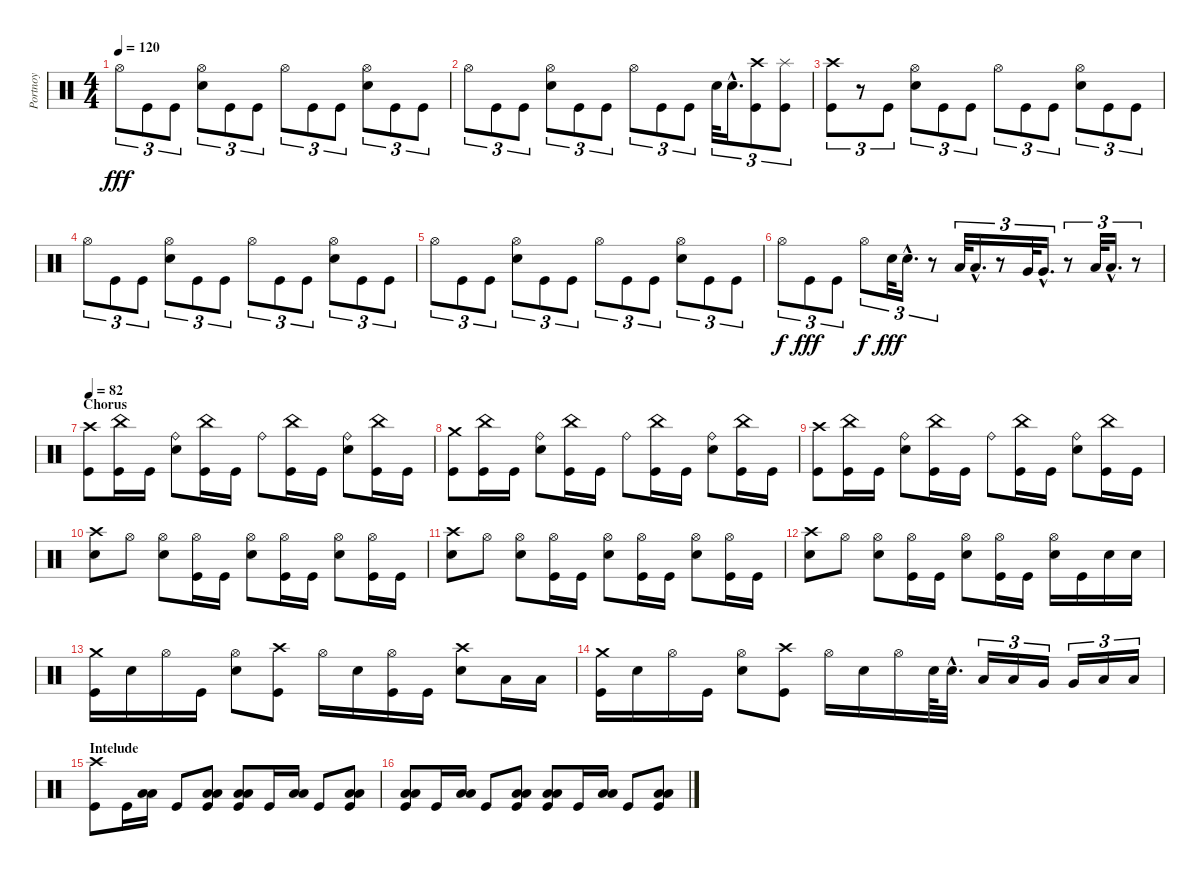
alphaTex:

\track ("Portnoy" "Portnoy") {instrument percussion}
\staff {score}
\articulation defaults
\ts (4 4)
\tempo 120
\clef neutral
\ks c "Hi-Hat (open)".8{tu (3 2) dy fff} "Kick (hit)".8{tu (3 2)} "Kick (hit)".8{tu (3 2)}
("Hi-Hat (open)" "Snare (hit) 2").8{tu (3 2)} "Kick (hit)".8{tu (3 2)} "Kick (hit)".8{tu (3 2)} "Hi-Hat (open)".8{tu (3 2)} "Kick (hit)".8{tu (3 2)} "Kick (hit)".8{tu (3 2)} ("Hi-Hat (open)" "Snare (hit) 2").8{tu (3 2)} "Kick (hit)".8{tu (3 2)} "Kick (hit)".8{tu (3 2)} |
"Hi-Hat (open)".8{tu (3 2)} "Kick (hit)".8{tu (3 2)} "Kick (hit)".8{tu (3 2)} ("Hi-Hat (open)" "Snare (hit) 2").8{tu (3 2)} "Kick (hit)".8{tu (3 2)} "Kick (hit)".8{tu (3 2)} "Hi-Hat (open)".8{tu (3 2)} "Kick (hit)".8{tu (3 2)} "Kick (hit)".8{tu (3 2)} "Snare (hit) 2".32{tu (3 2)} "Snare (hit) 2"{hac}.16{d tu (3 2)} ("Crash high (hit)" "Kick (hit)").8{tu (3 2)} ("Splash (hit)" "Kick (hit)").8{tu (3 2)} |
("Crash high (hit)" "Kick (hit)").8{tu (3 2)} r.8{tu (3 2)} "Kick (hit)".8{tu (3 2)} ("Hi-Hat (open)" "Snare (hit) 2").8{tu (3 2)} "Kick (hit)".8{tu (3 2)} "Kick (hit)".8{tu (3 2)} "Hi-Hat (open)".8{tu (3 2)} "Kick (hit)".8{tu (3 2)} "Kick (hit)".8{tu (3 2)} ("Hi-Hat (open)" "Snare (hit) 2").8{tu (3 2)} "Kick (hit)".8{tu (3 2)} "Kick (hit)".8{tu (3 2)} |
"Hi-Hat (open)".8{tu (3 2)} "Kick (hit)".8{tu (3 2)} "Kick (hit)".8{tu (3 2)} ("Hi-Hat (open)" "Snare (hit) 2").8{tu (3 2)} "Kick (hit)".8{tu (3 2)} "Kick (hit)".8{tu (3 2)} "Hi-Hat (open)".8{tu (3 2)} "Kick (hit)".8{tu (3 2)} "Kick (hit)".8{tu (3 2)} ("Hi-Hat (open)" "Snare (hit) 2").8{tu (3 2)} "Kick (hit)".8{tu (3 2)} "Kick (hit)".8{tu (3 2)} |
"Hi-Hat (open)".8{tu (3 2)} "Kick (hit)".8{tu (3 2)} "Kick (hit)".8{tu (3 2)} ("Hi-Hat (open)" "Snare (hit) 2").8{tu (3 2)} "Kick (hit)".8{tu (3 2)} "Kick (hit)".8{tu (3 2)} "Hi-Hat (open)".8{tu (3 2)} "Kick (hit)".8{tu (3 2)} "Kick (hit)".8{tu (3 2)} ("Hi-Hat (open)" "Snare (hit) 2").8{tu (3 2)} "Kick (hit)".8{tu (3 2)} "Kick (hit)".8{tu (3 2)} |
"Hi-Hat (open)".8{tu (3 2) dy f} "Kick (hit)".8{tu (3 2) dy fff} "Kick (hit)".8{tu (3 2)} "Hi-Hat (open)".8{tu (3 2) dy f} "Snare (hit) 2".32{tu (3 2) dy fff} "Snare (hit) 2"{hac}.16{d tu (3 2)} r.8{tu (3 2)} "Low Tom (hit)".32{tu (3 2)} "Low Tom (hit)"{hac}.16{d tu (3 2)} r.8{tu (3 2)} "Very Low Tom (hit)".32{tu (3 2)} "Very Low Tom (hit)"{hac}.16{d tu (3 2)} r.8{tu (3 2)} "Low Floor Tom (hit)".32{tu (3 2)} "Low Floor Tom (hit)"{hac}.16{d tu (3 2)} r.8{tu (3 2)} |
\section ("" "Chorus")
\tempo 82
("Crash high (hit)" "Kick (hit)").8 ("China (hit)" "Kick (hit)").16 "Kick (hit)".16 ("Ride (bell)" "Snare (hit) 2").8 ("China (hit)" "Kick (hit)").16 "Kick (hit)".16 "Ride (bell)".8 ("China (hit)" "Kick (hit)").16 "Kick (hit)".16 ("Ride (bell)" "Snare (hit) 2").8 ("China (hit)" "Kick (hit)").16 "Kick (hit)".16 |
("Crash medium (hit)" "Kick (hit)").8 ("China (hit)" "Kick (hit)").16 "Kick (hit)".16 ("Ride (bell)" "Snare (hit) 2").8 ("China (hit)" "Kick (hit)").16 "Kick (hit)".16 "Ride (bell)".8 ("China (hit)" "Kick (hit)").16 "Kick (hit)".16 ("Ride (bell)" "Snare (hit) 2").8 ("China (hit)" "Kick (hit)").16 "Kick (hit)".16 |
("Crash high (hit)" "Kick (hit)").8 ("China (hit)" "Kick (hit)").16 "Kick (hit)".16 ("Ride (bell)" "Snare (hit) 2").8 ("China (hit)" "Kick (hit)").16 "Kick (hit)".16 "Ride (bell)".8 ("China (hit)" "Kick (hit)").16 "Kick (hit)".16 ("Ride (bell)" "Snare (hit) 2").8 ("China (hit)" "Kick (hit)").16 "Kick (hit)".16 |
("Crash high (hit)" "Snare (hit) 2").8 "Hi-Hat (open)".8 ("Hi-Hat (open)" "Snare (hit) 2").8 ("Hi-Hat (open)" "Kick (hit)").16 "Kick (hit)".16 ("Hi-Hat (open)" "Snare (hit) 2").8 ("Hi-Hat (open)" "Kick (hit)").16 "Kick (hit)".16 ("Hi-Hat (open)" "Snare (hit) 2").8 ("Hi-Hat (open)" "Kick (hit)").16 "Kick (hit)".16 |
("Crash high (hit)" "Snare (hit) 2").8 "Hi-Hat (open)".8 ("Hi-Hat (open)" "Snare (hit) 2").8 ("Hi-Hat (open)" "Kick (hit)").16 "Kick (hit)".16 ("Hi-Hat (open)" "Snare (hit) 2").8 ("Hi-Hat (open)" "Kick (hit)").16 "Kick (hit)".16 ("Hi-Hat (open)" "Snare (hit) 2").8 ("Hi-Hat (open)" "Kick (hit)").16 "Kick (hit)".16 |
("Crash high (hit)" "Snare (hit) 2").8 "Hi-Hat (open)".8 ("Hi-Hat (open)" "Snare (hit) 2").8 ("Hi-Hat (open)" "Kick (hit)").16 "Kick (hit)".16 ("Hi-Hat (open)" "Snare (hit) 2").8 ("Hi-Hat (open)" "Kick (hit)").16 "Kick (hit)".16 ("Hi-Hat (open)" "Snare (hit) 2").16 "Kick (hit)".16 "Snare (hit) 2".16 "Snare (hit) 2".16 |
("Crash medium (hit)" "Kick (hit)").16 "Snare (hit) 2".16 "Hi-Hat (open)".16 "Kick (hit)".16 ("Hi-Hat (open)" "Snare (hit) 2").8 ("Crash high (hit)" "Kick (hit)").8 "Hi-Hat (open)".16 "Snare (hit) 2".16 ("Hi-Hat (open)" "Kick (hit)").16 "Kick (hit)".16 ("Crash high (hit)" "Snare (hit) 2").8 "Low Tom (hit)".16 "Low Tom (hit)".16 |
("Crash medium (hit)" "Kick (hit)").16 "Snare (hit) 2".16 "Hi-Hat (open)".16 "Kick (hit)".16 ("Hi-Hat (open)" "Snare (hit) 2").8 ("Crash high (hit)" "Kick (hit)").8 "Hi-Hat (open)".16 "Snare (hit) 2".16 "Hi-Hat (open)".16 "Snare (hit) 2".64 "Snare (hit) 2"{hac}.32{d} "Low Tom (hit)".16{tu (3 2)} "Low Tom (hit)".16{tu (3 2)} "Very Low Tom (hit)".16{tu (3 2)} "Very Low Tom (hit)".16{tu (3 2)} "Low Floor Tom (hit)".16{tu (3 2)} "Low Floor Tom (hit)".16{tu (3 2)} |
\section ("" "Intelude")
("Crash high (hit)" "Kick (hit)").8 "Kick (hit)".16 ("Low Tom (hit)" "Low Floor Tom (hit)").16 "Kick (hit)".8 ("Low Tom (hit)" "Low Floor Tom (hit)" "Kick (hit)").8 ("Low Tom (hit)" "Low Floor Tom (hit)" "Kick (hit)").8 "Kick (hit)".16 ("Low Tom (hit)" "Low Floor Tom (hit)").16 "Kick (hit)".8 ("Low Tom (hit)" "Low Floor Tom (hit)" "Kick (hit)").8 |
("Low Tom (hit)" "Low Floor Tom (hit)" "Kick (hit)").8 "Kick (hit)".16 ("Low Tom (hit)" "Low Floor Tom (hit)").16 "Kick (hit)".8 ("Low Tom (hit)" "Low Floor Tom (hit)" "Kick (hit)").8 ("Low Tom (hit)" "Low Floor Tom (hit)" "Kick (hit)").8 "Kick (hit)".16 ("Low Tom (hit)" "Low Floor Tom (hit)").16 "Kick (hit)".8 ("Low Tom (hit)" "Low Floor Tom (hit)" "Kick (hit)").8
